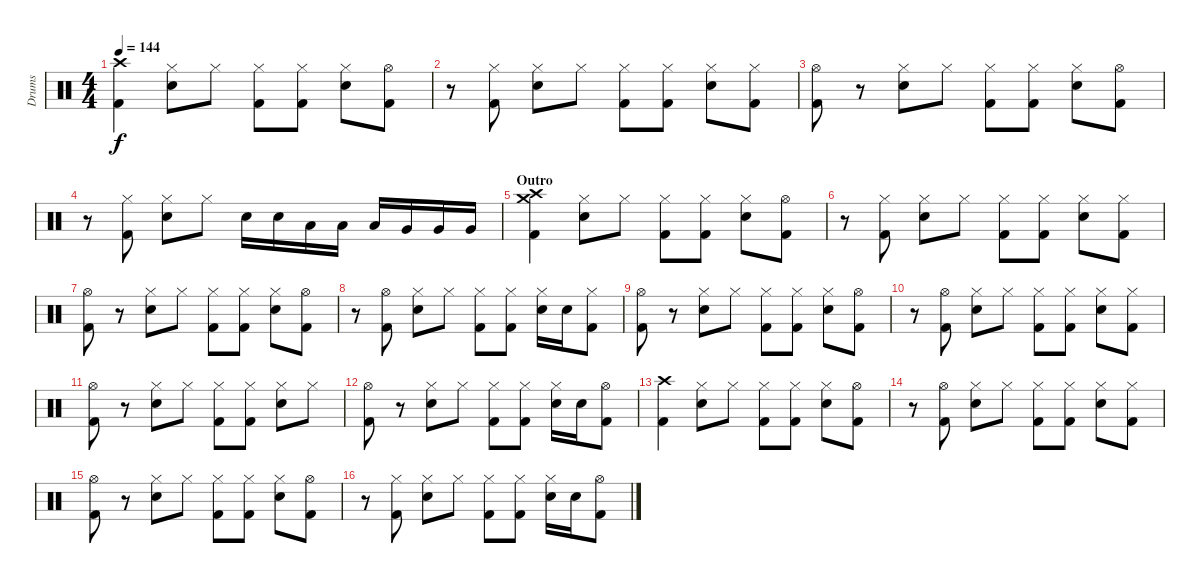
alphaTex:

\track ("Drums" "Drums") {instrument percussion}
\staff {score}
\articulation defaults
\ts (4 4)
\tempo 144
\clef neutral
\ks c
("Crash high (hit)" "Kick (hit) 2").4{dy f} ("Hi-Hat (closed)" "Snare (hit) 2").8 "Hi-Hat (closed)".8 ("Hi-Hat (closed)" "Kick (hit) 2").8 ("Hi-Hat (closed)" "Kick (hit) 2").8 ("Hi-Hat (closed)" "Snare (hit) 2").8 ("Hi-Hat (open)" "Kick (hit) 2").8 |
r.8 ("Hi-Hat (closed)" "Kick (hit) 2").8 ("Hi-Hat (closed)" "Snare (hit) 2").8 "Hi-Hat (closed)".8 ("Hi-Hat (closed)" "Kick (hit) 2").8 ("Hi-Hat (closed)" "Kick (hit) 2").8 ("Hi-Hat (closed)" "Snare (hit) 2").8 ("Hi-Hat (closed)" "Kick (hit) 2").8 |
("Hi-Hat (open)" "Kick (hit) 2").8 r.8 ("Hi-Hat (closed)" "Snare (hit) 2").8 "Hi-Hat (closed)".8 ("Hi-Hat (closed)" "Kick (hit) 2").8 ("Hi-Hat (closed)" "Kick (hit) 2").8 ("Hi-Hat (closed)" "Snare (hit) 2").8 ("Hi-Hat (open)" "Kick (hit) 2").8 |
r.8 ("Hi-Hat (closed)" "Kick (hit) 2").8 ("Hi-Hat (closed)" "Snare (hit) 2").8 "Hi-Hat (closed)".8 "Snare (hit) 2".16 "Snare (hit) 2".16 "Low Tom (hit)".16 "Low Tom (hit)".16 "Low Tom (hit)".16 "Very Low Tom (hit)".16 "Very Low Tom (hit)".16 "Very Low Tom (hit)".16 |
\section ("" "Outro")
("Crash high (hit)" "Crash medium (hit)" "Kick (hit) 2").4 ("Hi-Hat (closed)" "Snare (hit) 2").8 "Hi-Hat (closed)".8 ("Hi-Hat (closed)" "Kick (hit) 2").8 ("Hi-Hat (closed)" "Kick (hit) 2").8 ("Hi-Hat (closed)" "Snare (hit) 2").8 ("Hi-Hat (open)" "Kick (hit) 2").8 |
r.8 ("Hi-Hat (closed)" "Kick (hit) 2").8 ("Hi-Hat (closed)" "Snare (hit) 2").8 "Hi-Hat (closed)".8 ("Hi-Hat (closed)" "Kick (hit) 2").8 ("Hi-Hat (closed)" "Kick (hit) 2").8 ("Hi-Hat (closed)" "Snare (hit) 2").8 ("Hi-Hat (closed)" "Kick (hit) 2").8 |
("Hi-Hat (open)" "Kick (hit) 2").8 r.8 ("Hi-Hat (closed)" "Snare (hit) 2").8 "Hi-Hat (closed)".8 ("Hi-Hat (closed)" "Kick (hit) 2").8 ("Hi-Hat (closed)" "Kick (hit) 2").8 ("Hi-Hat (closed)" "Snare (hit) 2").8 ("Hi-Hat (open)" "Kick (hit) 2").8 |
r.8 ("Hi-Hat (open)" "Kick (hit) 2").8 ("Hi-Hat (closed)" "Snare (hit) 2").8 "Hi-Hat (closed)".8 ("Hi-Hat (closed)" "Kick (hit) 2").8 ("Hi-Hat (closed)" "Kick (hit) 2").8 ("Hi-Hat (closed)" "Snare (hit) 2").16 "Snare (hit) 2".16 ("Hi-Hat (closed)" "Kick (hit) 2").8 |
("Hi-Hat (open)" "Kick (hit) 2").8 r.8 ("Hi-Hat (closed)" "Snare (hit) 2").8 "Hi-Hat (closed)".8 ("Hi-Hat (closed)" "Kick (hit) 2").8 ("Hi-Hat (closed)" "Kick (hit) 2").8 ("Hi-Hat (closed)" "Snare (hit) 2").8 ("Hi-Hat (open)" "Kick (hit) 2").8 |
r.8 ("Hi-Hat (open)" "Kick (hit) 2").8 ("Hi-Hat (closed)" "Snare (hit) 2").8 "Hi-Hat (closed)".8 ("Hi-Hat (closed)" "Kick (hit) 2").8 ("Hi-Hat (closed)" "Kick (hit) 2").8 ("Hi-Hat (closed)" "Snare (hit) 2").8 ("Hi-Hat (closed)" "Kick (hit) 2").8 |
("Hi-Hat (open)" "Kick (hit) 2").8 r.8 ("Hi-Hat (closed)" "Snare (hit) 2").8 "Hi-Hat (closed)".8 ("Hi-Hat (closed)" "Kick (hit) 2").8 ("Hi-Hat (closed)" "Kick (hit) 2").8 ("Hi-Hat (closed)" "Snare (hit) 2").8 "Hi-Hat (closed)".8 |
("Hi-Hat (open)" "Kick (hit) 2").8 r.8 ("Hi-Hat (closed)" "Snare (hit) 2").8 "Hi-Hat (closed)".8 ("Hi-Hat (closed)" "Kick (hit) 2").8 ("Hi-Hat (closed)" "Kick (hit) 2").8 ("Hi-Hat (closed)" "Snare (hit) 2").16 "Snare (hit) 2".16 ("Hi-Hat (open)" "Kick (hit) 2").8 |
("Crash high (hit)" "Kick (hit) 2").4 ("Hi-Hat (closed)" "Snare (hit) 2").8 "Hi-Hat (closed)".8 ("Hi-Hat (closed)" "Kick (hit) 2").8 ("Hi-Hat (closed)" "Kick (hit) 2").8 ("Hi-Hat (closed)" "Snare (hit) 2").8 ("Hi-Hat (open)" "Kick (hit) 2").8 |
r.8 ("Hi-Hat (open)" "Kick (hit) 2").8 ("Hi-Hat (closed)" "Snare (hit) 2").8 "Hi-Hat (closed)".8 ("Hi-Hat (closed)" "Kick (hit) 2").8 ("Hi-Hat (closed)" "Kick (hit) 2").8 ("Hi-Hat (closed)" "Snare (hit) 2").8 ("Hi-Hat (closed)" "Kick (hit) 2").8 |
("Hi-Hat (open)" "Kick (hit) 2").8 r.8 ("Hi-Hat (closed)" "Snare (hit) 2").8 "Hi-Hat (closed)".8 ("Hi-Hat (closed)" "Kick (hit) 2").8 ("Hi-Hat (closed)" "Kick (hit) 2").8 ("Hi-Hat (closed)" "Snare (hit) 2").8 ("Hi-Hat (open)" "Kick (hit) 2").8 |
r.8 ("Hi-Hat (closed)" "Kick (hit) 2").8 ("Hi-Hat (closed)" "Snare (hit) 2").8 "Hi-Hat (closed)".8 ("Hi-Hat (closed)" "Kick (hit) 2").8 ("Hi-Hat (closed)" "Kick (hit) 2").8 ("Hi-Hat (closed)" "Snare (hit) 2").16 "Snare (hit) 2".16 ("Hi-Hat (open)" "Kick (hit) 2").8
